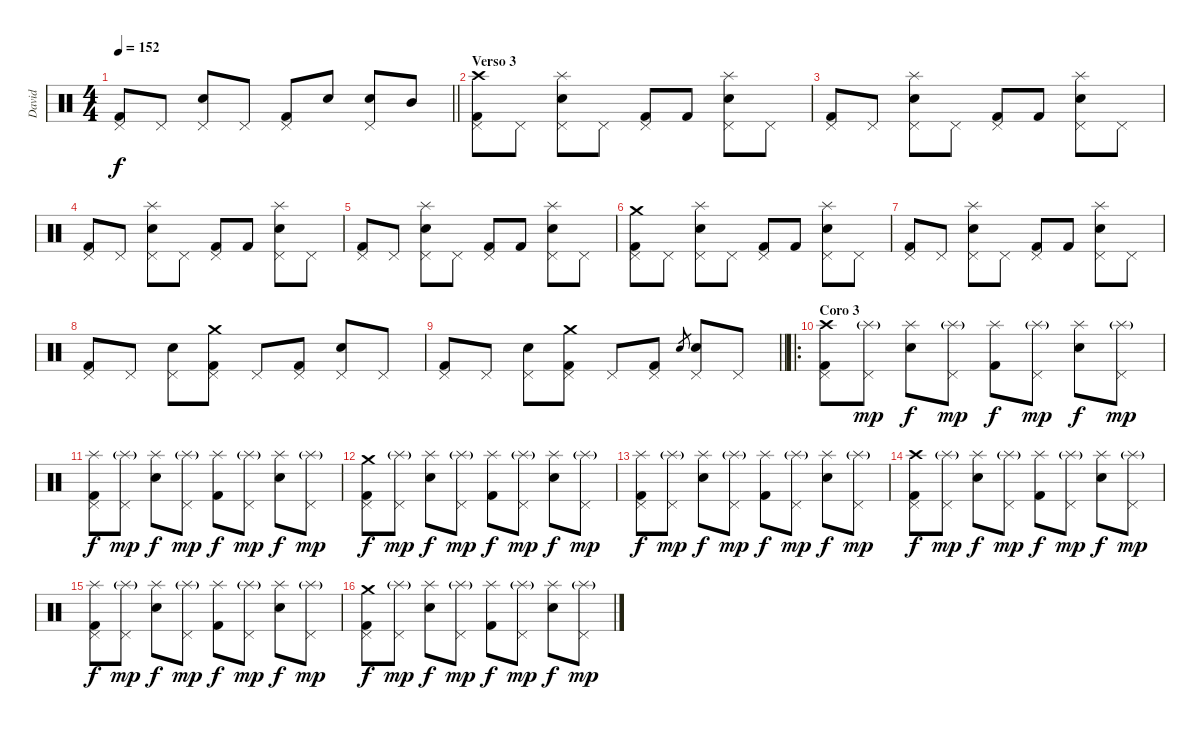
\track ("David" "David") {instrument percussion}
\staff {score}
\articulation defaults
\ts (4 4)
\tempo 152
\clef neutral
\barLineRight lightlight
\ks c
("Kick (hit) 2" "Pedal Hi-Hat (hit)").8{dy f} "Pedal Hi-Hat (hit)".8 ("Snare (hit) 2" "Pedal Hi-Hat (hit)").8 "Pedal Hi-Hat (hit)".8 ("Kick (hit) 2" "Pedal Hi-Hat (hit)").8 "Snare (hit) 2".8 ("Snare (hit) 2" "Pedal Hi-Hat (hit)").8 "Mid Tom (hit)".8 |
\section ("" "Verso 3")
("Kick (hit) 2" "Pedal Hi-Hat (hit)" "Crash high (hit)").8 "Pedal Hi-Hat (hit)".8 ("Snare (hit) 2" "Pedal Hi-Hat (hit)" "Splash (hit)").8 "Pedal Hi-Hat (hit)".8 ("Kick (hit) 2" "Pedal Hi-Hat (hit)").8 "Kick (hit) 2".8 ("Snare (hit) 2" "Pedal Hi-Hat (hit)" "Splash (hit)").8 "Pedal Hi-Hat (hit)".8 |
("Kick (hit) 2" "Pedal Hi-Hat (hit)").8 "Pedal Hi-Hat (hit)".8 ("Snare (hit) 2" "Pedal Hi-Hat (hit)" "Splash (hit)").8 "Pedal Hi-Hat (hit)".8 ("Kick (hit) 2" "Pedal Hi-Hat (hit)").8 "Kick (hit) 2".8 ("Snare (hit) 2" "Pedal Hi-Hat (hit)" "Splash (hit)").8 "Pedal Hi-Hat (hit)".8 |
("Kick (hit) 2" "Pedal Hi-Hat (hit)").8 "Pedal Hi-Hat (hit)".8 ("Snare (hit) 2" "Pedal Hi-Hat (hit)" "Splash (hit)").8 "Pedal Hi-Hat (hit)".8 ("Kick (hit) 2" "Pedal Hi-Hat (hit)").8 "Kick (hit) 2".8 ("Snare (hit) 2" "Pedal Hi-Hat (hit)" "Splash (hit)").8 "Pedal Hi-Hat (hit)".8 |
("Kick (hit) 2" "Pedal Hi-Hat (hit)").8 "Pedal Hi-Hat (hit)".8 ("Snare (hit) 2" "Pedal Hi-Hat (hit)" "Splash (hit)").8 "Pedal Hi-Hat (hit)".8 ("Kick (hit) 2" "Pedal Hi-Hat (hit)").8 "Kick (hit) 2".8 ("Snare (hit) 2" "Pedal Hi-Hat (hit)" "Splash (hit)").8 "Pedal Hi-Hat (hit)".8 |
("Kick (hit) 2" "Pedal Hi-Hat (hit)" "Crash medium (hit)").8 "Pedal Hi-Hat (hit)".8 ("Snare (hit) 2" "Pedal Hi-Hat (hit)" "Splash (hit)").8 "Pedal Hi-Hat (hit)".8 ("Kick (hit) 2" "Pedal Hi-Hat (hit)").8 "Kick (hit) 2".8 ("Snare (hit) 2" "Pedal Hi-Hat (hit)" "Splash (hit)").8 "Pedal Hi-Hat (hit)".8 |
("Kick (hit) 2" "Pedal Hi-Hat (hit)").8 "Pedal Hi-Hat (hit)".8 ("Snare (hit) 2" "Pedal Hi-Hat (hit)" "Splash (hit)").8 "Pedal Hi-Hat (hit)".8 ("Kick (hit) 2" "Pedal Hi-Hat (hit)").8 "Kick (hit) 2".8 ("Snare (hit) 2" "Pedal Hi-Hat (hit)" "Splash (hit)").8 "Pedal Hi-Hat (hit)".8 |
("Kick (hit) 2" "Pedal Hi-Hat (hit)").8 "Pedal Hi-Hat (hit)".8 ("Snare (hit) 2" "Pedal Hi-Hat (hit)").8 ("Kick (hit) 2" "Pedal Hi-Hat (hit)" "Crash medium (hit)").8 "Pedal Hi-Hat (hit)".8 ("Kick (hit) 2" "Pedal Hi-Hat (hit)").8 ("Snare (hit) 2" "Pedal Hi-Hat (hit)").8 "Pedal Hi-Hat (hit)".8 |
\barLineRight lightlight
("Kick (hit) 2" "Pedal Hi-Hat (hit)").8 "Pedal Hi-Hat (hit)".8 ("Snare (hit) 2" "Pedal Hi-Hat (hit)").8 ("Kick (hit) 2" "Pedal Hi-Hat (hit)" "Crash medium (hit)").8 "Pedal Hi-Hat (hit)".8 ("Kick (hit) 2" "Pedal Hi-Hat (hit)").8 "Snare (hit) 2".8{gr} ("Snare (hit) 2" "Pedal Hi-Hat (hit)").8 "Pedal Hi-Hat (hit)".8 |
\ro
\section ("" "Coro 3")
("Kick (hit) 2" "Pedal Hi-Hat (hit)" "Crash high (hit)").8 ("Pedal Hi-Hat (hit)" "Splash (hit)"{g}).8{dy mp} ("Snare (hit) 2" "Splash (hit)").8{dy f} ("Pedal Hi-Hat (hit)" "Splash (hit)"{g}).8{dy mp} ("Kick (hit) 2" "Splash (hit)").8{dy f} ("Pedal Hi-Hat (hit)" "Splash (hit)"{g}).8{dy mp} ("Snare (hit) 2" "Splash (hit)").8{dy f} ("Pedal Hi-Hat (hit)" "Splash (hit)"{g}).8{dy mp} |
("Kick (hit) 2" "Pedal Hi-Hat (hit)" "Splash (hit)").8{dy f} ("Pedal Hi-Hat (hit)" "Splash (hit)"{g}).8{dy mp} ("Snare (hit) 2" "Splash (hit)").8{dy f} ("Pedal Hi-Hat (hit)" "Splash (hit)"{g}).8{dy mp} ("Kick (hit) 2" "Splash (hit)").8{dy f} ("Pedal Hi-Hat (hit)" "Splash (hit)"{g}).8{dy mp} ("Snare (hit) 2" "Splash (hit)").8{dy f} ("Pedal Hi-Hat (hit)" "Splash (hit)"{g}).8{dy mp} |
("Kick (hit) 2" "Pedal Hi-Hat (hit)" "Crash medium (hit)").8{dy f} ("Pedal Hi-Hat (hit)" "Splash (hit)"{g}).8{dy mp} ("Snare (hit) 2" "Splash (hit)").8{dy f} ("Pedal Hi-Hat (hit)" "Splash (hit)"{g}).8{dy mp} ("Kick (hit) 2" "Splash (hit)").8{dy f} ("Pedal Hi-Hat (hit)" "Splash (hit)"{g}).8{dy mp} ("Snare (hit) 2" "Splash (hit)").8{dy f} ("Pedal Hi-Hat (hit)" "Splash (hit)"{g}).8{dy mp} |
("Kick (hit) 2" "Pedal Hi-Hat (hit)" "Splash (hit)").8{dy f} ("Pedal Hi-Hat (hit)" "Splash (hit)"{g}).8{dy mp} ("Snare (hit) 2" "Splash (hit)").8{dy f} ("Pedal Hi-Hat (hit)" "Splash (hit)"{g}).8{dy mp} ("Kick (hit) 2" "Splash (hit)").8{dy f} ("Pedal Hi-Hat (hit)" "Splash (hit)"{g}).8{dy mp} ("Snare (hit) 2" "Splash (hit)").8{dy f} ("Pedal Hi-Hat (hit)" "Splash (hit)"{g}).8{dy mp} |
("Kick (hit) 2" "Pedal Hi-Hat (hit)" "Crash high (hit)").8{dy f} ("Pedal Hi-Hat (hit)" "Splash (hit)"{g}).8{dy mp} ("Snare (hit) 2" "Splash (hit)").8{dy f} ("Pedal Hi-Hat (hit)" "Splash (hit)"{g}).8{dy mp} ("Kick (hit) 2" "Splash (hit)").8{dy f} ("Pedal Hi-Hat (hit)" "Splash (hit)"{g}).8{dy mp} ("Snare (hit) 2" "Splash (hit)").8{dy f} ("Pedal Hi-Hat (hit)" "Splash (hit)"{g}).8{dy mp} |
("Kick (hit) 2" "Pedal Hi-Hat (hit)" "Splash (hit)").8{dy f} ("Pedal Hi-Hat (hit)" "Splash (hit)"{g}).8{dy mp} ("Snare (hit) 2" "Splash (hit)").8{dy f} ("Pedal Hi-Hat (hit)" "Splash (hit)"{g}).8{dy mp} ("Kick (hit) 2" "Splash (hit)").8{dy f} ("Pedal Hi-Hat (hit)" "Splash (hit)"{g}).8{dy mp} ("Snare (hit) 2" "Splash (hit)").8{dy f} ("Pedal Hi-Hat (hit)" "Splash (hit)"{g}).8{dy mp} |
("Kick (hit) 2" "Pedal Hi-Hat (hit)" "Crash medium (hit)").8{dy f} ("Pedal Hi-Hat (hit)" "Splash (hit)"{g}).8{dy mp} ("Snare (hit) 2" "Splash (hit)").8{dy f} ("Pedal Hi-Hat (hit)" "Splash (hit)"{g}).8{dy mp} ("Kick (hit) 2" "Splash (hit)").8{dy f} ("Pedal Hi-Hat (hit)" "Splash (hit)"{g}).8{dy mp} ("Snare (hit) 2" "Splash (hit)").8{dy f} ("Pedal Hi-Hat (hit)" "Splash (hit)"{g}).8{dy mp}
